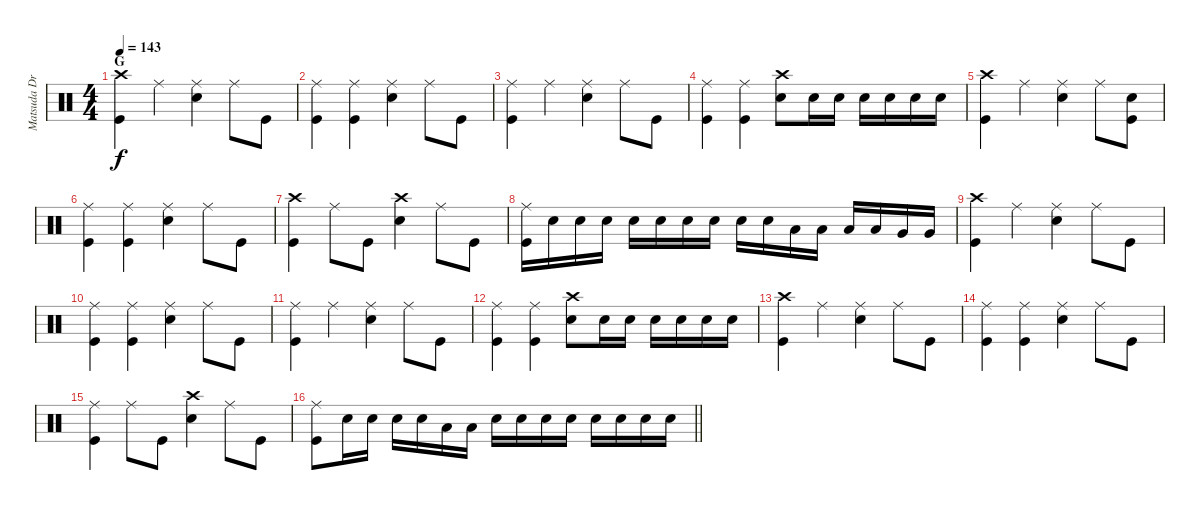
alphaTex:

\track ("Matsuda Drums" "Matsuda Dr") {instrument percussion}
\staff {score}
\articulation defaults
\ts (4 4)
\section ("" "G")
\tempo 143
\clef neutral
\ks c
("Crash high (hit)" "Kick (hit)").4{dy f} "Ride (middle)".4 ("Ride (middle)" "Snare (hit) 2").4 "Ride (middle)".8 "Kick (hit)".8 |
("Ride (middle)" "Kick (hit)").4 ("Ride (middle)" "Kick (hit)").4 ("Ride (middle)" "Snare (hit) 2").4 "Ride (middle)".8 "Kick (hit)".8 |
("Ride (middle)" "Kick (hit)").4 "Ride (middle)".4 ("Ride (middle)" "Snare (hit) 2").4 "Ride (middle)".8 "Kick (hit)".8 |
("Ride (middle)" "Kick (hit)").4 ("Ride (middle)" "Kick (hit)").4 ("Crash high (hit)" "Snare (hit) 2").8 "Snare (hit) 2".16 "Snare (hit) 2".16 "Snare (hit) 2".16 "Snare (hit) 2".16 "Snare (hit) 2".16 "Snare (hit) 2".16 |
("Crash high (hit)" "Kick (hit)").4 "Ride (middle)".4 ("Ride (middle)" "Snare (hit) 2").4 "Ride (middle)".8 ("Snare (hit)" "Kick (hit)").8 |
("Ride (middle)" "Kick (hit)").4 ("Ride (middle)" "Kick (hit)").4 ("Ride (middle)" "Snare (hit) 2").4 "Ride (middle)".8 "Kick (hit)".8 |
("Crash high (hit)" "Kick (hit)").4 "Ride (middle)".8 "Kick (hit)".8 ("Crash high (hit)" "Snare (hit) 2").4 "Ride (middle)".8 "Kick (hit)".8 |
("Ride (middle)" "Kick (hit)").16 "Snare (hit) 2".16 "Snare (hit) 2".16 "Snare (hit) 2".16 "Snare (hit) 2".16 "Snare (hit) 2".16 "Snare (hit) 2".16 "Snare (hit) 2".16 "Snare (hit) 2".16 "Snare (hit) 2".16 "Low Tom (hit)".16 "Low Tom (hit)".16 "Low Tom (hit)".16 "Low Tom (hit)".16 "Very Low Tom (hit)".16 "Very Low Tom (hit)".16 |
("Crash high (hit)" "Kick (hit)").4 "Ride (middle)".4 ("Ride (middle)" "Snare (hit) 2").4 "Ride (middle)".8 "Kick (hit)".8 |
("Ride (middle)" "Kick (hit)").4 ("Ride (middle)" "Kick (hit)").4 ("Ride (middle)" "Snare (hit) 2").4 "Ride (middle)".8 "Kick (hit)".8 |
("Ride (middle)" "Kick (hit)").4 "Ride (middle)".4 ("Ride (middle)" "Snare (hit) 2").4 "Ride (middle)".8 "Kick (hit)".8 |
("Ride (middle)" "Kick (hit)").4 ("Ride (middle)" "Kick (hit)").4 ("Crash high (hit)" "Snare (hit) 2").8 "Snare (hit) 2".16 "Snare (hit) 2".16 "Snare (hit) 2".16 "Snare (hit) 2".16 "Snare (hit) 2".16 "Snare (hit) 2".16 |
("Crash high (hit)" "Kick (hit)").4 "Ride (middle)".4 ("Ride (middle)" "Snare (hit) 2").4 "Ride (middle)".8 "Kick (hit)".8 |
("Ride (middle)" "Kick (hit)").4 ("Ride (middle)" "Kick (hit)").4 ("Ride (middle)" "Snare (hit) 2").4 "Ride (middle)".8 "Kick (hit)".8 |
("Ride (middle)" "Kick (hit)").4 "Ride (middle)".8 "Kick (hit)".8 ("Crash high (hit)" "Snare (hit) 2").4 "Ride (middle)".8 "Kick (hit)".8 |
\barLineRight lightlight
("Ride (middle)" "Kick (hit)").8 "Snare (hit) 2".16 "Snare (hit) 2".16 "Snare (hit) 2".16 "Snare (hit) 2".16 "Low Tom (hit)".16 "Low Tom (hit)".16 "Snare (hit) 2".16 "Snare (hit) 2".16 "Snare (hit) 2".16 "Snare (hit) 2".16 "Snare (hit) 2".16 "Snare (hit) 2".16 "Snare (hit) 2".16 "Snare (hit) 2".16
